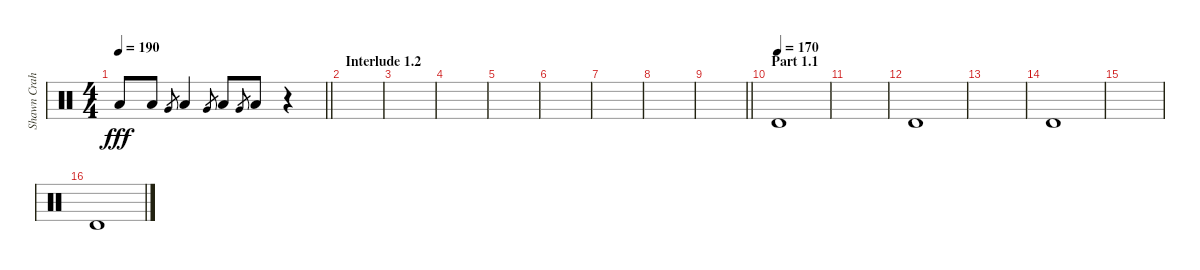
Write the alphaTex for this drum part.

\track ("Shawn Crahan" "Shawn Crah") {instrument percussion}
\staff {score}
\articulation defaults
\ts (4 4)
\tempo 190
\clef neutral
\barLineRight lightlight
\ks c "Low Floor Tom (hit)".8{dy fff} "Low Floor Tom (hit)".8 "Very Low Tom (hit)".8{gr} "Low Floor Tom (hit)".4 "Very Low Tom (hit)".8{gr} "Low Floor Tom (hit)".8 "Very Low Tom (hit)".8{gr} "Low Floor Tom (hit)".8
r.4 |
\section ("" "Interlude 1.2")
|
|
|
|
|
|
|
\barLineRight lightlight
|
\section ("" "Part 1.1")
\tempo (170)
"Timbale high (hit)".1 |
|
"Timbale high (hit)".1 |
|
"Timbale high (hit)".1 |
|
"Timbale high (hit)".1
